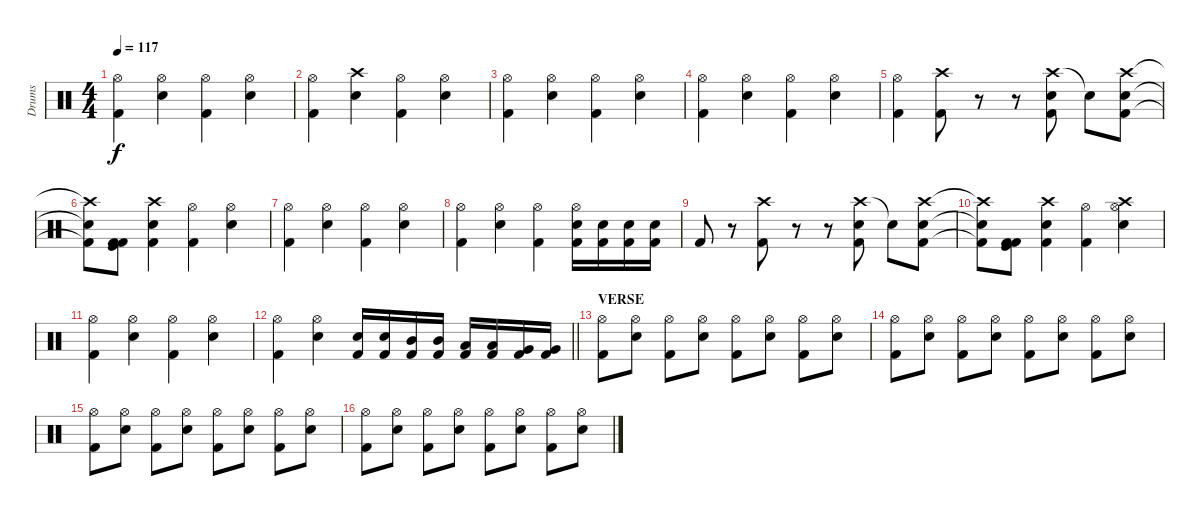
\track ("Drums" "Drums") {instrument percussion}
\staff {score}
\articulation defaults
\ts (4 4)
\tempo 117
\clef neutral
\ks c
("Hi-Hat (open)" "Kick (hit) 2").4{dy f} ("Hi-Hat (open)" "Electric Snare (hit)").4 ("Hi-Hat (open)" "Kick (hit) 2").4 ("Hi-Hat (open)" "Electric Snare (hit)").4 |
("Hi-Hat (open)" "Kick (hit) 2").4 ("Crash high (hit)" "Electric Snare (hit)").4 ("Hi-Hat (open)" "Kick (hit) 2").4 ("Hi-Hat (open)" "Electric Snare (hit)").4 |
("Hi-Hat (open)" "Kick (hit) 2").4 ("Hi-Hat (open)" "Electric Snare (hit)").4 ("Hi-Hat (open)" "Kick (hit) 2").4 ("Hi-Hat (open)" "Electric Snare (hit)").4 |
("Hi-Hat (open)" "Kick (hit) 2").4 ("Hi-Hat (open)" "Electric Snare (hit)").4 ("Hi-Hat (open)" "Kick (hit) 2").4 ("Hi-Hat (open)" "Electric Snare (hit)").4 |
("Hi-Hat (open)" "Kick (hit) 2").4 ("Crash high (hit)" "Kick (hit) 2").8 r.8 r.8 ("Crash high (hit)" "Electric Snare (hit)" "Kick (hit) 2").8 "Snare (hit)"{t}.8 ("Crash high (hit)" "Electric Snare (hit)" "Kick (hit) 2").8 |
("Crash high (hit)"{t} "Electric Snare (hit)"{t} "Kick (hit) 2"{t}).8 ("Kick (hit) 2" "Kick (hit)" "Kick (hit) 2").8 ("Crash high (hit)" "Electric Snare (hit)" "Kick (hit) 2").4 ("Hi-Hat (open)" "Kick (hit) 2").4 ("Hi-Hat (open)" "Electric Snare (hit)").4 |
("Hi-Hat (open)" "Kick (hit) 2").4 ("Hi-Hat (open)" "Electric Snare (hit)").4 ("Hi-Hat (open)" "Kick (hit) 2").4 ("Hi-Hat (open)" "Electric Snare (hit)").4 |
("Hi-Hat (open)" "Kick (hit) 2").4 ("Hi-Hat (open)" "Electric Snare (hit)").4 ("Hi-Hat (open)" "Kick (hit) 2").4 ("Hi-Hat (open)" "Electric Snare (hit)" "Kick (hit) 2").16 ("Electric Snare (hit)" "Kick (hit) 2").16 ("Electric Snare (hit)" "Kick (hit) 2").16 ("Electric Snare (hit)" "Kick (hit) 2").16 |
"Kick (hit) 2".8 r.8 ("Crash high (hit)" "Kick (hit) 2").8 r.8 r.8 ("Crash high (hit)" "Electric Snare (hit)" "Kick (hit) 2").8 "Snare (hit)"{t}.8 ("Crash high (hit)" "Electric Snare (hit)" "Kick (hit) 2").8 |
("Crash high (hit)"{t} "Electric Snare (hit)"{t} "Kick (hit) 2"{t}).8 ("Kick (hit) 2" "Kick (hit)" "Kick (hit) 2").8 ("Crash high (hit)" "Electric Snare (hit)" "Kick (hit) 2").4 ("Hi-Hat (open)" "Kick (hit) 2").4 ("Crash high (hit)" "Hi-Hat (open)" "Electric Snare (hit)").4 |
("Hi-Hat (open)" "Kick (hit) 2").4 ("Hi-Hat (open)" "Electric Snare (hit)").4 ("Hi-Hat (open)" "Kick (hit) 2").4 ("Hi-Hat (open)" "Electric Snare (hit)").4 |
\barLineRight lightlight
("Hi-Hat (open)" "Kick (hit) 2").4 ("Hi-Hat (open)" "Electric Snare (hit)").4 ("Electric Snare (hit)" "Kick (hit) 2").16 ("Electric Snare (hit)" "Kick (hit) 2").16 ("Mid Tom (hit)" "Kick (hit) 2").16 ("Mid Tom (hit)" "Kick (hit) 2").16 ("Low Tom (hit)" "Kick (hit) 2").16 ("Low Tom (hit)" "Kick (hit) 2").16 ("Very Low Tom (hit)" "Kick (hit) 2").16 ("Very Low Tom (hit)" "Kick (hit) 2").16 |
\section ("" "VERSE")
("Hi-Hat (open)" "Kick (hit) 2").8 ("Hi-Hat (open)" "Electric Snare (hit)").8 ("Hi-Hat (open)" "Kick (hit) 2").8 ("Hi-Hat (open)" "Electric Snare (hit)").8 ("Hi-Hat (open)" "Kick (hit) 2").8 ("Hi-Hat (open)" "Electric Snare (hit)").8 ("Hi-Hat (open)" "Kick (hit) 2").8 ("Hi-Hat (open)" "Electric Snare (hit)").8 |
("Hi-Hat (open)" "Kick (hit) 2").8 ("Hi-Hat (open)" "Electric Snare (hit)").8 ("Hi-Hat (open)" "Kick (hit) 2").8 ("Hi-Hat (open)" "Electric Snare (hit)").8 ("Hi-Hat (open)" "Kick (hit) 2").8 ("Hi-Hat (open)" "Electric Snare (hit)").8 ("Hi-Hat (open)" "Kick (hit) 2").8 ("Hi-Hat (open)" "Electric Snare (hit)").8 |
("Hi-Hat (open)" "Kick (hit) 2").8 ("Hi-Hat (open)" "Electric Snare (hit)").8 ("Hi-Hat (open)" "Kick (hit) 2").8 ("Hi-Hat (open)" "Electric Snare (hit)").8 ("Hi-Hat (open)" "Kick (hit) 2").8 ("Hi-Hat (open)" "Electric Snare (hit)").8 ("Hi-Hat (open)" "Kick (hit) 2").8 ("Hi-Hat (open)" "Electric Snare (hit)").8 |
("Hi-Hat (open)" "Kick (hit) 2").8 ("Hi-Hat (open)" "Electric Snare (hit)").8 ("Hi-Hat (open)" "Kick (hit) 2").8 ("Hi-Hat (open)" "Electric Snare (hit)").8 ("Hi-Hat (open)" "Kick (hit) 2").8 ("Hi-Hat (open)" "Electric Snare (hit)").8 ("Hi-Hat (open)" "Kick (hit) 2").8 ("Hi-Hat (open)" "Electric Snare (hit)").8
